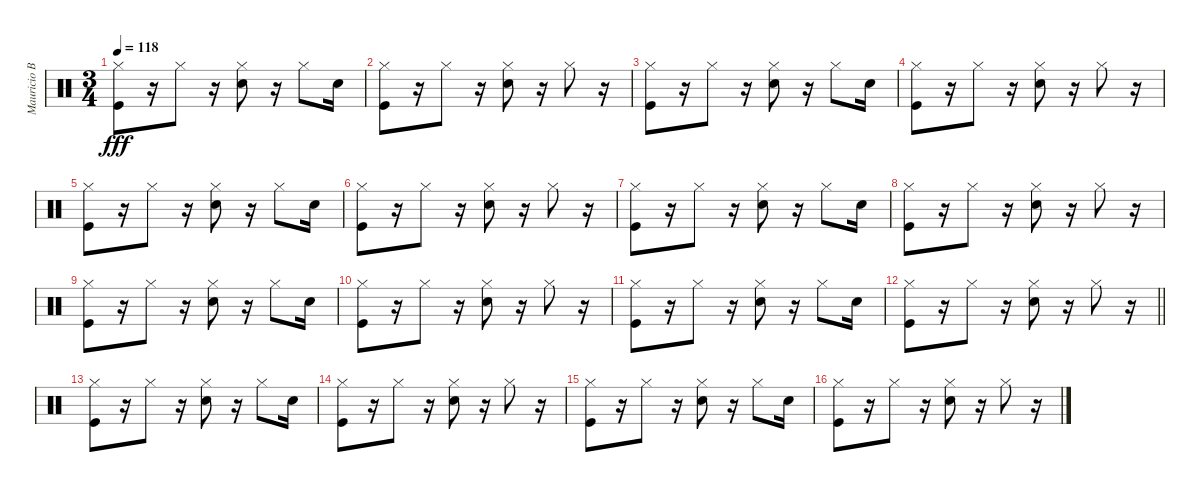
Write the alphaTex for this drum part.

\track ("Mauricio Basualto" "Mauricio B") {instrument percussion}
\staff {score}
\articulation defaults
\ts (3 4)
\tempo 118
\clef neutral
\ks c
("Hi-Hat (closed)" "Kick (hit)").8{dy fff} r.16 "Hi-Hat (closed)".8 r.16 ("Hi-Hat (closed)" "Snare (hit) 2").8 r.16 "Hi-Hat (closed)".8 "Snare (hit) 2".16 |
("Hi-Hat (closed)" "Kick (hit)").8 r.16 "Hi-Hat (closed)".8 r.16 ("Hi-Hat (closed)" "Snare (hit) 2").8 r.16 "Hi-Hat (closed)".8 r.16 |
("Hi-Hat (closed)" "Kick (hit)").8 r.16 "Hi-Hat (closed)".8 r.16 ("Hi-Hat (closed)" "Snare (hit) 2").8 r.16 "Hi-Hat (closed)".8 "Snare (hit) 2".16 |
("Hi-Hat (closed)" "Kick (hit)").8 r.16 "Hi-Hat (closed)".8 r.16 ("Hi-Hat (closed)" "Snare (hit) 2").8 r.16 "Hi-Hat (closed)".8 r.16 |
("Hi-Hat (closed)" "Kick (hit)").8 r.16 "Hi-Hat (closed)".8 r.16 ("Hi-Hat (closed)" "Snare (hit) 2").8 r.16 "Hi-Hat (closed)".8 "Snare (hit) 2".16 |
("Hi-Hat (closed)" "Kick (hit)").8 r.16 "Hi-Hat (closed)".8 r.16 ("Hi-Hat (closed)" "Snare (hit) 2").8 r.16 "Hi-Hat (closed)".8 r.16 |
("Hi-Hat (closed)" "Kick (hit)").8 r.16 "Hi-Hat (closed)".8 r.16 ("Hi-Hat (closed)" "Snare (hit) 2").8 r.16 "Hi-Hat (closed)".8 "Snare (hit) 2".16 |
("Hi-Hat (closed)" "Kick (hit)").8 r.16 "Hi-Hat (closed)".8 r.16 ("Hi-Hat (closed)" "Snare (hit) 2").8 r.16 "Hi-Hat (closed)".8 r.16 |
("Hi-Hat (closed)" "Kick (hit)").8 r.16 "Hi-Hat (closed)".8 r.16 ("Hi-Hat (closed)" "Snare (hit) 2").8 r.16 "Hi-Hat (closed)".8 "Snare (hit) 2".16 |
("Hi-Hat (closed)" "Kick (hit)").8 r.16 "Hi-Hat (closed)".8 r.16 ("Hi-Hat (closed)" "Snare (hit) 2").8 r.16 "Hi-Hat (closed)".8 r.16 |
("Hi-Hat (closed)" "Kick (hit)").8 r.16 "Hi-Hat (closed)".8 r.16 ("Hi-Hat (closed)" "Snare (hit) 2").8 r.16 "Hi-Hat (closed)".8 "Snare (hit) 2".16 |
\barLineRight lightlight
("Hi-Hat (closed)" "Kick (hit)").8 r.16 "Hi-Hat (closed)".8 r.16 ("Hi-Hat (closed)" "Snare (hit) 2").8 r.16 "Hi-Hat (closed)".8 r.16 |
\section ("" "")
("Hi-Hat (closed)" "Kick (hit)").8 r.16 "Hi-Hat (closed)".8 r.16 ("Hi-Hat (closed)" "Snare (hit) 2").8 r.16 "Hi-Hat (closed)".8 "Snare (hit) 2".16 |
("Hi-Hat (closed)" "Kick (hit)").8 r.16 "Hi-Hat (closed)".8 r.16 ("Hi-Hat (closed)" "Snare (hit) 2").8 r.16 "Hi-Hat (closed)".8 r.16 |
("Hi-Hat (closed)" "Kick (hit)").8 r.16 "Hi-Hat (closed)".8 r.16 ("Hi-Hat (closed)" "Snare (hit) 2").8 r.16 "Hi-Hat (closed)".8 "Snare (hit) 2".16 |
("Hi-Hat (closed)" "Kick (hit)").8 r.16 "Hi-Hat (closed)".8 r.16 ("Hi-Hat (closed)" "Snare (hit) 2").8 r.16 "Hi-Hat (closed)".8 r.16
